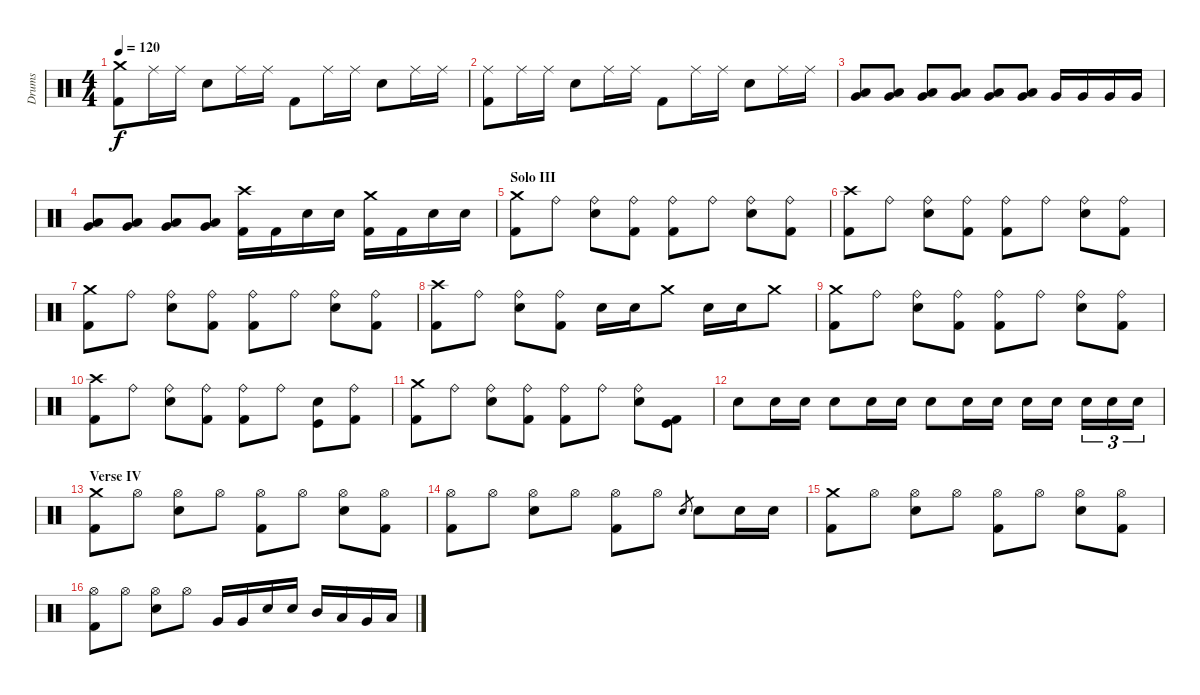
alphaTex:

\track ("Drums" "Drums") {instrument percussion}
\staff {score}
\articulation defaults
\ts (4 4)
\tempo 120
\clef neutral
\ks c
("Kick (hit) 2" "Crash medium (hit)").8{dy f} "Ride (middle)".16 "Ride (middle)".16 "Snare (hit) 2".8 "Ride (middle)".16 "Ride (middle)".16 "Kick (hit) 2".8 "Ride (middle)".16 "Ride (middle)".16 "Snare (hit) 2".8 "Ride (middle)".16 "Ride (middle)".16 |
("Kick (hit) 2" "Ride (middle)").8 "Ride (middle)".16 "Ride (middle)".16 "Snare (hit) 2".8 "Ride (middle)".16 "Ride (middle)".16 "Kick (hit) 2".8 "Ride (middle)".16 "Ride (middle)".16 "Snare (hit) 2".8 "Ride (middle)".16 "Ride (middle)".16 |
("Very Low Tom (hit)" "Low Floor Tom (hit)").8 ("Very Low Tom (hit)" "Low Floor Tom (hit)").8 ("Very Low Tom (hit)" "Low Floor Tom (hit)").8 ("Very Low Tom (hit)" "Low Floor Tom (hit)").8 ("Very Low Tom (hit)" "Low Floor Tom (hit)").8 ("Very Low Tom (hit)" "Low Floor Tom (hit)").8 "Very Low Tom (hit)".16 "Very Low Tom (hit)".16 "Very Low Tom (hit)".16 "Very Low Tom (hit)".16 |
("Very Low Tom (hit)" "Low Floor Tom (hit)").8 ("Very Low Tom (hit)" "Low Floor Tom (hit)").8 ("Very Low Tom (hit)" "Low Floor Tom (hit)").8 ("Very Low Tom (hit)" "Low Floor Tom (hit)").8 ("Kick (hit) 2" "Crash high (hit)").16 "Kick (hit) 2".16 "Snare (hit) 2".16 "Snare (hit) 2".16 ("Kick (hit) 2" "Crash medium (hit)").16 "Kick (hit) 2".16 "Snare (hit) 2".16 "Snare (hit) 2".16 |
\section ("" "Solo III")
("Kick (hit) 2" "Crash medium (hit)").8 "Ride (bell)".8 ("Snare (hit) 2" "Ride (bell)").8 ("Kick (hit) 2" "Ride (bell)").8 ("Kick (hit) 2" "Ride (bell)").8 "Ride (bell)".8 ("Snare (hit) 2" "Ride (bell)").8 ("Kick (hit) 2" "Ride (bell)").8 |
("Kick (hit) 2" "Crash high (hit)").8 "Ride (bell)".8 ("Snare (hit) 2" "Ride (bell)").8 ("Kick (hit) 2" "Ride (bell)").8 ("Kick (hit) 2" "Ride (bell)").8 "Ride (bell)".8 ("Snare (hit) 2" "Ride (bell)").8 ("Kick (hit) 2" "Ride (bell)").8 |
("Kick (hit) 2" "Crash medium (hit)").8 "Ride (bell)".8 ("Snare (hit) 2" "Ride (bell)").8 ("Kick (hit) 2" "Ride (bell)").8 ("Kick (hit) 2" "Ride (bell)").8 "Ride (bell)".8 ("Snare (hit) 2" "Ride (bell)").8 ("Kick (hit) 2" "Ride (bell)").8 |
("Kick (hit) 2" "Crash high (hit)").8 "Ride (bell)".8 ("Snare (hit) 2" "Ride (bell)").8 ("Kick (hit) 2" "Ride (bell)").8 "Snare (hit) 2".16 "Snare (hit) 2".16 "Crash medium (hit)".8 "Snare (hit) 2".16 "Snare (hit) 2".16 "Crash medium (hit)".8 |
("Kick (hit) 2" "Crash medium (hit)").8 "Ride (bell)".8 ("Snare (hit) 2" "Ride (bell)").8 ("Kick (hit) 2" "Ride (bell)").8 ("Kick (hit) 2" "Ride (bell)").8 "Ride (bell)".8 ("Snare (hit) 2" "Ride (bell)").8 ("Kick (hit) 2" "Ride (bell)").8 |
("Kick (hit) 2" "Crash high (hit)").8 "Ride (bell)".8 ("Snare (hit) 2" "Ride (bell)").8 ("Kick (hit) 2" "Ride (bell)").8 ("Kick (hit) 2" "Ride (bell)").8 "Ride (bell)".8 ("Snare (hit) 2" "Kick (hit)").8 ("Kick (hit) 2" "Ride (bell)").8 |
("Kick (hit) 2" "Crash medium (hit)").8 "Ride (bell)".8 ("Snare (hit) 2" "Ride (bell)").8 ("Kick (hit) 2" "Ride (bell)").8 ("Kick (hit) 2" "Ride (bell)").8 "Ride (bell)".8 ("Snare (hit) 2" "Ride (bell)").8 ("Kick (hit) 2" "Kick (hit)").8 |
"Snare (hit) 2".8 "Snare (hit) 2".16 "Snare (hit) 2".16 "Snare (hit) 2".8 "Snare (hit) 2".16 "Snare (hit) 2".16 "Snare (hit) 2".8 "Snare (hit) 2".16 "Snare (hit) 2".16 "Snare (hit) 2".16 "Snare (hit) 2".16 "Snare (hit) 2".16{tu (3 2)} "Snare (hit) 2".16{tu (3 2)} "Snare (hit) 2".16{tu (3 2)} |
\section ("" "Verse IV")
("Kick (hit) 2" "Crash medium (hit)").8 "Hi-Hat (open)".8 ("Snare (hit) 2" "Hi-Hat (open)").8 "Hi-Hat (open)".8 ("Kick (hit) 2" "Hi-Hat (open)").8 "Hi-Hat (open)".8 ("Snare (hit) 2" "Hi-Hat (open)").8 ("Kick (hit) 2" "Hi-Hat (open)").8 |
("Kick (hit) 2" "Hi-Hat (open)").8 "Hi-Hat (open)".8 ("Snare (hit) 2" "Hi-Hat (open)").8 "Hi-Hat (open)".8 ("Kick (hit) 2" "Hi-Hat (open)").8 "Hi-Hat (open)".8 "Snare (hit) 2".8{gr} "Snare (hit) 2".8 "Snare (hit) 2".16 "Snare (hit) 2".16 |
("Kick (hit) 2" "Crash medium (hit)").8 "Hi-Hat (open)".8 ("Snare (hit) 2" "Hi-Hat (open)").8 "Hi-Hat (open)".8 ("Kick (hit) 2" "Hi-Hat (open)").8 "Hi-Hat (open)".8 ("Snare (hit) 2" "Hi-Hat (open)").8 ("Kick (hit) 2" "Hi-Hat (open)").8 |
("Kick (hit) 2" "Hi-Hat (open)").8 "Hi-Hat (open)".8 ("Snare (hit) 2" "Hi-Hat (open)").8 "Hi-Hat (open)".8 "Very Low Tom (hit)".16 "Very Low Tom (hit)".16 "Snare (hit) 2".16 "Snare (hit) 2".16 "Mid Tom (hit)".16 "Low Tom (hit)".16 "Very Low Tom (hit)".16 "Low Floor Tom (hit)".16
